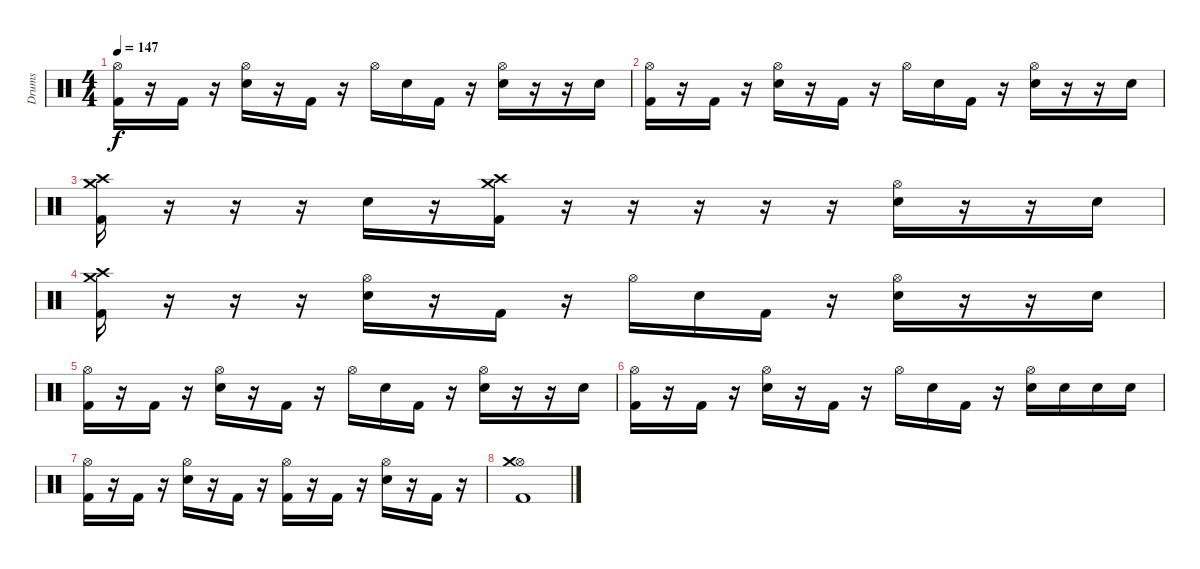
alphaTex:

\track ("Drums" "Drums") {instrument percussion}
\staff {score}
\articulation defaults
\ts (4 4)
\tempo 147
\clef neutral
\ks c
("Hi-Hat (open)" "Kick (hit) 2").16{dy f} r.16 "Kick (hit) 2".16 r.16 ("Hi-Hat (open)" "Snare (hit) 2").16 r.16 "Kick (hit) 2".16 r.16 "Hi-Hat (open)".16 "Snare (hit) 2".16 "Kick (hit) 2".16 r.16 ("Hi-Hat (open)" "Snare (hit) 2").16 r.16 r.16 "Snare (hit) 2".16 |
("Hi-Hat (open)" "Kick (hit) 2").16 r.16 "Kick (hit) 2".16 r.16 ("Hi-Hat (open)" "Snare (hit) 2").16 r.16 "Kick (hit) 2".16 r.16 "Hi-Hat (open)".16 "Snare (hit) 2".16 "Kick (hit) 2".16 r.16 ("Hi-Hat (open)" "Snare (hit) 2").16 r.16 r.16 "Snare (hit) 2".16 |
("Crash high (hit)" "Crash medium (hit)" "Kick (hit) 2").16 r.16 r.16 r.16 "Snare (hit) 2".16 r.16 ("Crash high (hit)" "Crash medium (hit)" "Kick (hit) 2").16 r.16 r.16 r.16 r.16 r.16 ("Hi-Hat (open)" "Snare (hit) 2").16 r.16 r.16 "Snare (hit) 2".16 |
("Crash high (hit)" "Crash medium (hit)" "Kick (hit) 2").16 r.16 r.16 r.16 ("Hi-Hat (open)" "Snare (hit) 2").16 r.16 "Kick (hit) 2".16 r.16 "Hi-Hat (open)".16 "Snare (hit) 2".16 "Kick (hit) 2".16 r.16 ("Hi-Hat (open)" "Snare (hit) 2").16 r.16 r.16 "Snare (hit) 2".16 |
("Hi-Hat (open)" "Kick (hit) 2").16 r.16 "Kick (hit) 2".16 r.16 ("Hi-Hat (open)" "Snare (hit) 2").16 r.16 "Kick (hit) 2".16 r.16 "Hi-Hat (open)".16 "Snare (hit) 2".16 "Kick (hit) 2".16 r.16 ("Hi-Hat (open)" "Snare (hit) 2").16 r.16 r.16 "Snare (hit) 2".16 |
("Hi-Hat (open)" "Kick (hit) 2").16 r.16 "Kick (hit) 2".16 r.16 ("Hi-Hat (open)" "Snare (hit) 2").16 r.16 "Kick (hit) 2".16 r.16 "Hi-Hat (open)".16 "Snare (hit) 2".16 "Kick (hit) 2".16 r.16 ("Hi-Hat (open)" "Snare (hit) 2").16 "Snare (hit) 2".16 "Snare (hit) 2".16 "Snare (hit) 2".16 |
("Hi-Hat (open)" "Kick (hit) 2").16 r.16 "Kick (hit) 2".16 r.16 ("Hi-Hat (open)" "Snare (hit) 2").16 r.16 "Kick (hit) 2".16 r.16 ("Hi-Hat (open)" "Kick (hit) 2").16 r.16 "Kick (hit) 2".16 r.16 ("Hi-Hat (open)" "Snare (hit) 2").16 r.16 "Kick (hit) 2".16 r.16 |
("Hi-Hat (open)" "Crash medium (hit)" "Kick (hit) 2").1
